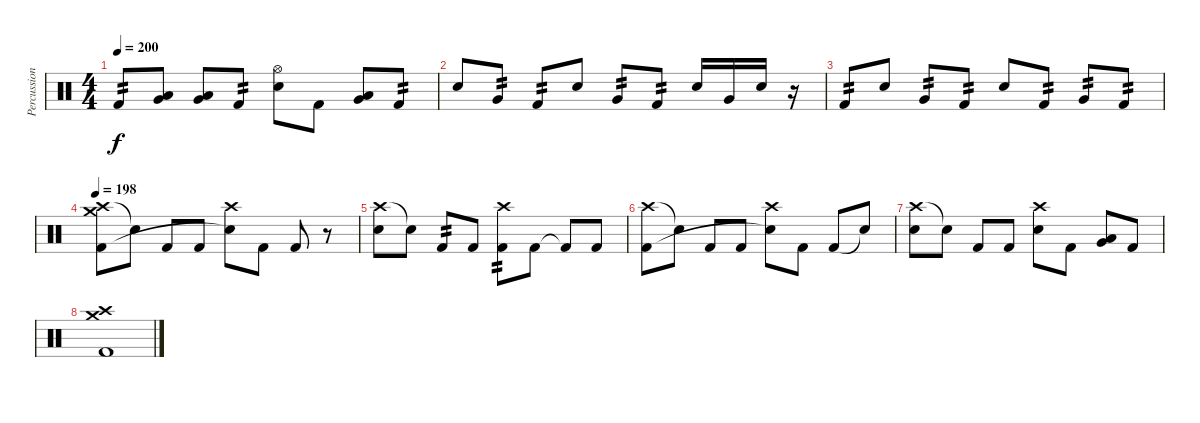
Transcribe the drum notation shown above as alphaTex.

\track ("Percussion" "Percussion") {instrument percussion}
\staff {score}
\articulation defaults
\ts (4 4)
\tempo 200
\clef neutral
\ks c "Kick (hit) 2".8{tp 2 dy f}
("Very Low Tom (hit)" "Low Floor Tom (hit)").8 ("Low Floor Tom (hit)" "Very Low Tom (hit)").8 "Kick (hit) 2".8{tp 2} ("Snare (hit) 2" "Hi-Hat (open)").8 "Kick (hit) 2".8 ("Low Floor Tom (hit)" "Very Low Tom (hit)").8 "Kick (hit) 2".8{tp 2} |
"Snare (hit) 2".8 "Very Low Tom (hit)".8{tp 2} "Kick (hit) 2".8{tp 2} "Snare (hit) 2".8 "Very Low Tom (hit)".8{tp 2} "Kick (hit) 2".8{tp 2} "Snare (hit) 2".16 "Very Low Tom (hit)".16 "Snare (hit) 2".16 r.16 |
"Kick (hit) 2".8{tp 2} "Snare (hit) 2".8 "Very Low Tom (hit)".8{tp 2} "Kick (hit) 2".8{tp 2} "Snare (hit) 2".8 "Kick (hit) 2".8{tp 2} "Very Low Tom (hit)".8{tp 2} "Kick (hit) 2".8{tp 2} |
\tempo 198
("Crash high (hit)" "Kick (hit) 2" "Crash medium (hit)").8 "Snare (hit)"{t}.8 "Kick (hit) 2".8 "Kick (hit) 2".8 ("Crash high (hit)" "Snare (hit)"{t}).8 "Kick (hit) 2".8 "Kick (hit) 2".8 r.8 |
("Crash high (hit)" "Snare (hit) 2").8 "Snare (hit)"{t}.8 "Kick (hit) 2".8{tp 2} "Kick (hit) 2".8 ("Crash high (hit)" "Kick (hit) 2").8{tp 2} "Kick (hit) 2".8 "Kick (hit) 2"{t}.8 "Kick (hit) 2".8 |
("Crash high (hit)" "Kick (hit) 2").8 "Snare (hit)"{t}.8 "Kick (hit) 2".8 "Kick (hit) 2".8 ("Crash high (hit)" "Snare (hit)"{t}).8 "Kick (hit) 2".8 "Kick (hit) 2".8 "Snare (hit)"{t}.8 |
("Crash high (hit)" "Snare (hit) 2").8 "Snare (hit)"{t}.8 "Kick (hit) 2".8 "Kick (hit) 2".8 ("Crash high (hit)" "Snare (hit) 2").8 "Kick (hit) 2".8 ("Low Floor Tom (hit)" "Very Low Tom (hit)").8 "Kick (hit) 2".8 |
("Kick (hit) 2" "Crash high (hit)" "Crash medium (hit)").1
